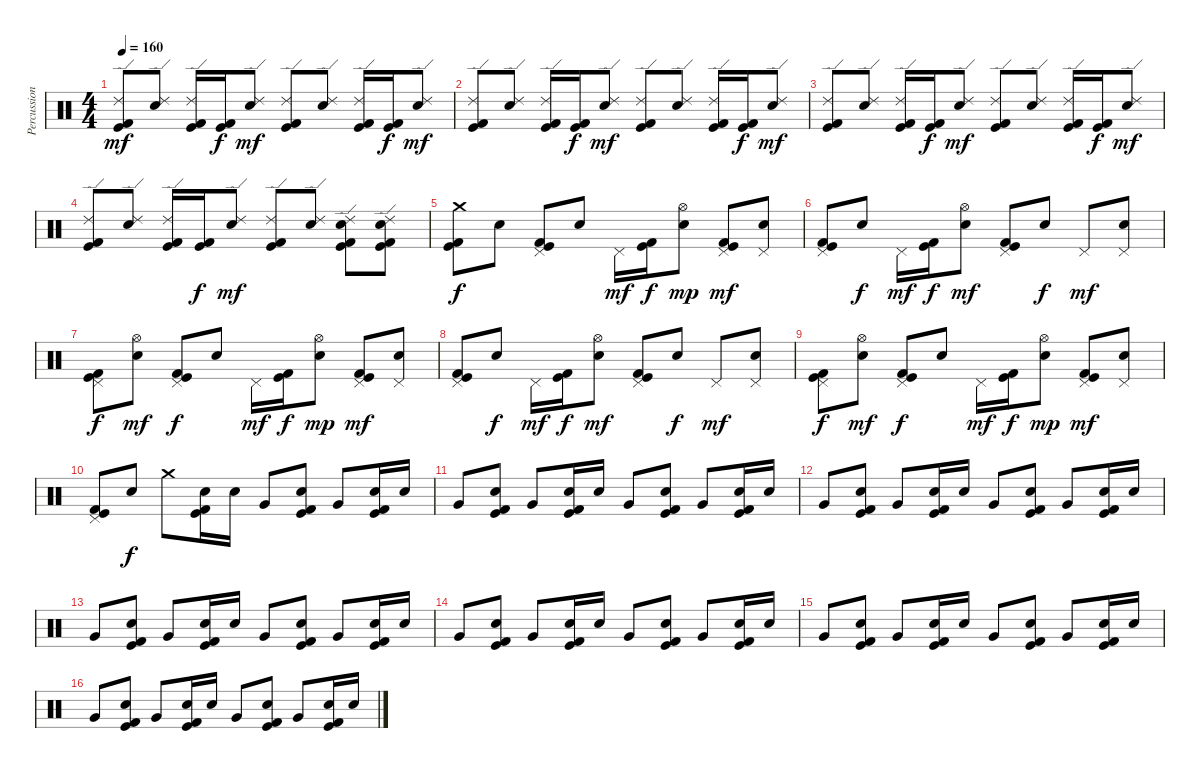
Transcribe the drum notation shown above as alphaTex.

\track ("Percussions" "Percussion") {instrument percussion}
\staff {score}
\articulation defaults
\ts (4 4)
\tempo 160
\clef neutral
\ks c
("Ride (edge) 2" "Kick (hit)" "Kick (hit) 2").8{dy mf} ("Ride (edge) 2" "Electric Snare (hit)").8 ("Ride (edge) 2" "Kick (hit)" "Kick (hit) 2").16 ("Kick (hit)" "Kick (hit) 2").16{dy f} ("Ride (edge) 2" "Electric Snare (hit)").8{dy mf} ("Ride (edge) 2" "Kick (hit)" "Kick (hit) 2").8 ("Ride (edge) 2" "Electric Snare (hit)").8 ("Ride (edge) 2" "Kick (hit)" "Kick (hit) 2").16 ("Kick (hit)" "Kick (hit) 2").16{dy f} ("Ride (edge) 2" "Electric Snare (hit)").8{dy mf} |
("Ride (edge) 2" "Kick (hit)" "Kick (hit) 2").8 ("Ride (edge) 2" "Electric Snare (hit)").8 ("Ride (edge) 2" "Kick (hit)" "Kick (hit) 2").16 ("Kick (hit)" "Kick (hit) 2").16{dy f} ("Ride (edge) 2" "Electric Snare (hit)").8{dy mf} ("Ride (edge) 2" "Kick (hit)" "Kick (hit) 2").8 ("Ride (edge) 2" "Electric Snare (hit)").8 ("Ride (edge) 2" "Kick (hit)" "Kick (hit) 2").16 ("Kick (hit)" "Kick (hit) 2").16{dy f} ("Ride (edge) 2" "Electric Snare (hit)").8{dy mf} |
("Ride (edge) 2" "Kick (hit)" "Kick (hit) 2").8 ("Ride (edge) 2" "Electric Snare (hit)").8 ("Ride (edge) 2" "Kick (hit)" "Kick (hit) 2").16 ("Kick (hit)" "Kick (hit) 2").16{dy f} ("Ride (edge) 2" "Electric Snare (hit)").8{dy mf} ("Ride (edge) 2" "Kick (hit)" "Kick (hit) 2").8 ("Ride (edge) 2" "Electric Snare (hit)").8 ("Ride (edge) 2" "Kick (hit)" "Kick (hit) 2").16 ("Kick (hit)" "Kick (hit) 2").16{dy f} ("Ride (edge) 2" "Electric Snare (hit)").8{dy mf} |
("Ride (edge) 2" "Kick (hit)" "Kick (hit) 2").8 ("Ride (edge) 2" "Electric Snare (hit)").8 ("Ride (edge) 2" "Kick (hit)" "Kick (hit) 2").16 ("Kick (hit)" "Kick (hit) 2").16{dy f} ("Ride (edge) 2" "Electric Snare (hit)").8{dy mf} ("Ride (edge) 2" "Kick (hit)" "Kick (hit) 2").8 ("Ride (edge) 2" "Electric Snare (hit)").8 ("Ride (edge) 2" "Electric Snare (hit)" "Kick (hit)" "Kick (hit) 2").8 ("Ride (edge) 2" "Electric Snare (hit)" "Kick (hit)" "Kick (hit) 2").8 |
("Crash medium (hit)" "Kick (hit)" "Kick (hit) 2").8{dy f} "Electric Snare (hit)".8 ("Pedal Hi-Hat (hit)" "Kick (hit)" "Kick (hit) 2").8 "Electric Snare (hit)".8 "Pedal Hi-Hat (hit)".16{dy mf} ("Kick (hit)" "Kick (hit) 2").16{dy f} ("Hi-Hat (open)" "Electric Snare (hit)").8{dy mp} ("Pedal Hi-Hat (hit)" "Kick (hit)" "Kick (hit) 2").8{dy mf} ("Pedal Hi-Hat (hit)" "Electric Snare (hit)").8 |
("Pedal Hi-Hat (hit)" "Kick (hit)" "Kick (hit) 2").8 "Electric Snare (hit)".8{dy f} "Pedal Hi-Hat (hit)".16{dy mf} ("Kick (hit)" "Kick (hit) 2").16{dy f} ("Hi-Hat (open)" "Electric Snare (hit)").8{dy mf} ("Pedal Hi-Hat (hit)" "Kick (hit)" "Kick (hit) 2").8 "Electric Snare (hit)".8{dy f} "Pedal Hi-Hat (hit)".8{dy mf} ("Pedal Hi-Hat (hit)" "Electric Snare (hit)").8 |
("Pedal Hi-Hat (hit)" "Kick (hit)" "Kick (hit) 2").8{dy f} ("Hi-Hat (open)" "Electric Snare (hit)").8{dy mf} ("Pedal Hi-Hat (hit)" "Kick (hit)" "Kick (hit) 2").8{dy f} "Electric Snare (hit)".8 "Pedal Hi-Hat (hit)".16{dy mf} ("Kick (hit)" "Kick (hit) 2").16{dy f} ("Hi-Hat (open)" "Electric Snare (hit)").8{dy mp} ("Pedal Hi-Hat (hit)" "Kick (hit)" "Kick (hit) 2").8{dy mf} ("Pedal Hi-Hat (hit)" "Electric Snare (hit)").8 |
("Pedal Hi-Hat (hit)" "Kick (hit)" "Kick (hit) 2").8 "Electric Snare (hit)".8{dy f} "Pedal Hi-Hat (hit)".16{dy mf} ("Kick (hit)" "Kick (hit) 2").16{dy f} ("Hi-Hat (open)" "Electric Snare (hit)").8{dy mf} ("Pedal Hi-Hat (hit)" "Kick (hit)" "Kick (hit) 2").8 "Electric Snare (hit)".8{dy f} "Pedal Hi-Hat (hit)".8{dy mf} ("Pedal Hi-Hat (hit)" "Electric Snare (hit)").8 |
("Pedal Hi-Hat (hit)" "Kick (hit)" "Kick (hit) 2").8{dy f} ("Hi-Hat (open)" "Electric Snare (hit)").8{dy mf} ("Pedal Hi-Hat (hit)" "Kick (hit)" "Kick (hit) 2").8{dy f} "Electric Snare (hit)".8 "Pedal Hi-Hat (hit)".16{dy mf} ("Kick (hit)" "Kick (hit) 2").16{dy f} ("Hi-Hat (open)" "Electric Snare (hit)").8{dy mp} ("Pedal Hi-Hat (hit)" "Kick (hit)" "Kick (hit) 2").8{dy mf} ("Pedal Hi-Hat (hit)" "Electric Snare (hit)").8 |
("Pedal Hi-Hat (hit)" "Kick (hit)" "Kick (hit) 2").8 "Electric Snare (hit)".8{dy f} "Crash medium (hit)".8 ("Electric Snare (hit)" "Kick (hit)" "Kick (hit) 2").16 "Electric Snare (hit)".16 "Very Low Tom (hit)".8 ("Electric Snare (hit)" "Kick (hit)" "Kick (hit) 2").8 "Very Low Tom (hit)".8 ("Electric Snare (hit)" "Kick (hit)" "Kick (hit) 2").16 "Electric Snare (hit)".16 |
"Very Low Tom (hit)".8 ("Electric Snare (hit)" "Kick (hit)" "Kick (hit) 2").8 "Very Low Tom (hit)".8 ("Electric Snare (hit)" "Kick (hit)" "Kick (hit) 2").16 "Electric Snare (hit)".16 "Very Low Tom (hit)".8 ("Electric Snare (hit)" "Kick (hit)" "Kick (hit) 2").8 "Very Low Tom (hit)".8 ("Electric Snare (hit)" "Kick (hit)" "Kick (hit) 2").16 "Electric Snare (hit)".16 |
"Very Low Tom (hit)".8 ("Electric Snare (hit)" "Kick (hit)" "Kick (hit) 2").8 "Very Low Tom (hit)".8 ("Electric Snare (hit)" "Kick (hit)" "Kick (hit) 2").16 "Electric Snare (hit)".16 "Very Low Tom (hit)".8 ("Electric Snare (hit)" "Kick (hit)" "Kick (hit) 2").8 "Very Low Tom (hit)".8 ("Electric Snare (hit)" "Kick (hit)" "Kick (hit) 2").16 "Electric Snare (hit)".16 |
"Very Low Tom (hit)".8 ("Electric Snare (hit)" "Kick (hit)" "Kick (hit) 2").8 "Very Low Tom (hit)".8 ("Electric Snare (hit)" "Kick (hit)" "Kick (hit) 2").16 "Electric Snare (hit)".16 "Very Low Tom (hit)".8 ("Electric Snare (hit)" "Kick (hit)" "Kick (hit) 2").8 "Very Low Tom (hit)".8 ("Electric Snare (hit)" "Kick (hit)" "Kick (hit) 2").16 "Electric Snare (hit)".16 |
"Very Low Tom (hit)".8 ("Electric Snare (hit)" "Kick (hit)" "Kick (hit) 2").8 "Very Low Tom (hit)".8 ("Electric Snare (hit)" "Kick (hit)" "Kick (hit) 2").16 "Electric Snare (hit)".16 "Very Low Tom (hit)".8 ("Electric Snare (hit)" "Kick (hit)" "Kick (hit) 2").8 "Very Low Tom (hit)".8 ("Electric Snare (hit)" "Kick (hit)" "Kick (hit) 2").16 "Electric Snare (hit)".16 |
"Very Low Tom (hit)".8 ("Electric Snare (hit)" "Kick (hit)" "Kick (hit) 2").8 "Very Low Tom (hit)".8 ("Electric Snare (hit)" "Kick (hit)" "Kick (hit) 2").16 "Electric Snare (hit)".16 "Very Low Tom (hit)".8 ("Electric Snare (hit)" "Kick (hit)" "Kick (hit) 2").8 "Very Low Tom (hit)".8 ("Electric Snare (hit)" "Kick (hit)" "Kick (hit) 2").16 "Electric Snare (hit)".16 |
"Very Low Tom (hit)".8 ("Electric Snare (hit)" "Kick (hit)" "Kick (hit) 2").8 "Very Low Tom (hit)".8 ("Electric Snare (hit)" "Kick (hit)" "Kick (hit) 2").16 "Electric Snare (hit)".16 "Very Low Tom (hit)".8 ("Electric Snare (hit)" "Kick (hit)" "Kick (hit) 2").8 "Very Low Tom (hit)".8 ("Electric Snare (hit)" "Kick (hit)" "Kick (hit) 2").16 "Electric Snare (hit)".16
